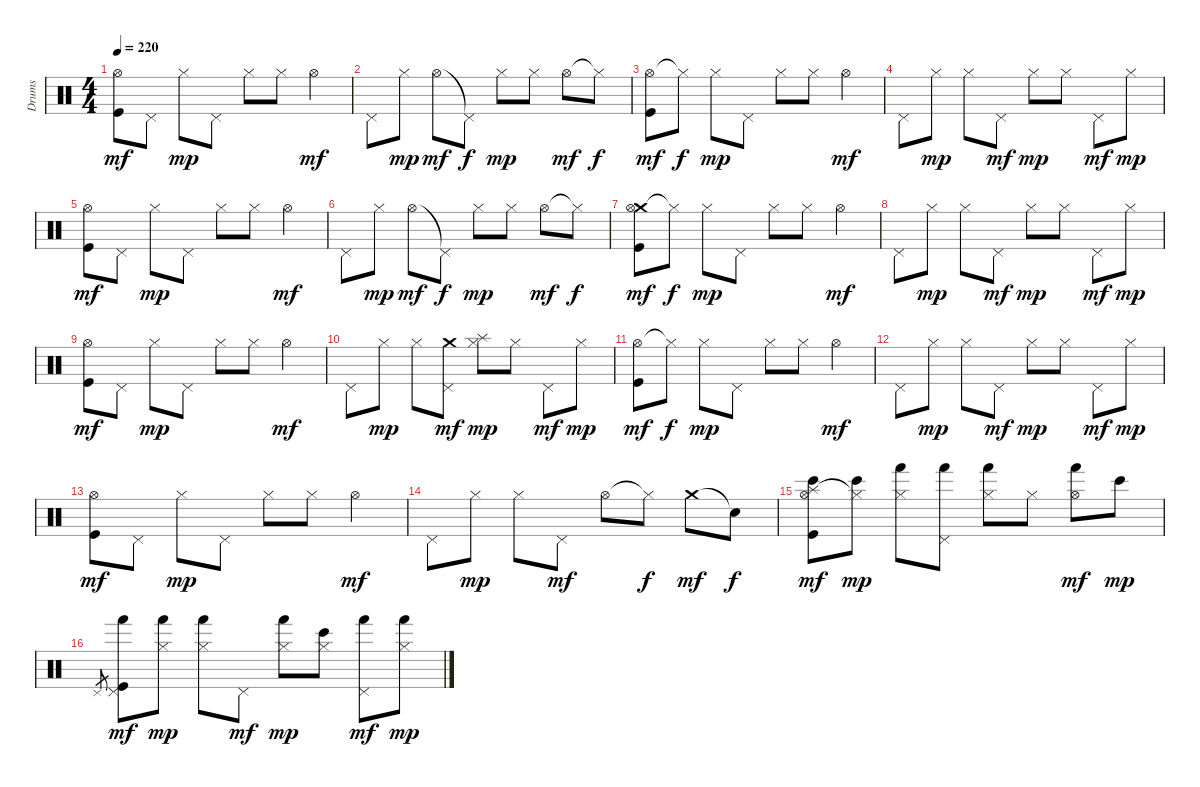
\track ("Drums" "Drums") {instrument percussion}
\staff {score}
\articulation defaults
\ts (4 4)
\tempo 220
\clef neutral
\ks c
("Hi-Hat (open)" "Kick (hit)").8{dy mf} "Pedal Hi-Hat (hit)".8 "Hi-Hat (closed)".8{dy mp} "Pedal Hi-Hat (hit)".8 "Hi-Hat (closed)".8 "Hi-Hat (closed)".8 "Hi-Hat (open)".4{dy mf} |
"Pedal Hi-Hat (hit)".8 "Hi-Hat (closed)".8{dy mp} "Hi-Hat (open)".8{dy mf} "Pedal Hi-Hat (hit)"{t}.8{dy f} "Hi-Hat (closed)".8{dy mp} "Hi-Hat (closed)".8 "Hi-Hat (open)".8{dy mf} "Hi-Hat (closed)"{t}.8{dy f} |
("Hi-Hat (open)" "Kick (hit)").8{dy mf} "Hi-Hat (closed)"{t}.8{dy f} "Hi-Hat (closed)".8{dy mp} "Pedal Hi-Hat (hit)".8 "Hi-Hat (closed)".8 "Hi-Hat (closed)".8 "Hi-Hat (open)".4{dy mf} |
"Pedal Hi-Hat (hit)".8 "Hi-Hat (closed)".8{dy mp} "Hi-Hat (closed)".8 "Pedal Hi-Hat (hit)".8{dy mf} "Hi-Hat (closed)".8{dy mp} "Hi-Hat (closed)".8 "Pedal Hi-Hat (hit)".8{dy mf} "Hi-Hat (closed)".8{dy mp} |
("Hi-Hat (open)" "Kick (hit)").8{dy mf} "Pedal Hi-Hat (hit)".8 "Hi-Hat (closed)".8{dy mp} "Pedal Hi-Hat (hit)".8 "Hi-Hat (closed)".8 "Hi-Hat (closed)".8 "Hi-Hat (open)".4{dy mf} |
"Pedal Hi-Hat (hit)".8 "Hi-Hat (closed)".8{dy mp} "Hi-Hat (open)".8{dy mf} "Pedal Hi-Hat (hit)"{t}.8{dy f} "Hi-Hat (closed)".8{dy mp} "Hi-Hat (closed)".8 "Hi-Hat (open)".8{dy mf} "Hi-Hat (closed)"{t}.8{dy f} |
("Crash medium (hit)" "Hi-Hat (open)" "Kick (hit)").8{dy mf} "Hi-Hat (closed)"{t}.8{dy f} "Hi-Hat (closed)".8{dy mp} "Pedal Hi-Hat (hit)".8 "Hi-Hat (closed)".8 "Hi-Hat (closed)".8 "Hi-Hat (open)".4{dy mf} |
"Pedal Hi-Hat (hit)".8 "Hi-Hat (closed)".8{dy mp} "Hi-Hat (closed)".8 "Pedal Hi-Hat (hit)".8{dy mf} "Hi-Hat (closed)".8{dy mp} "Hi-Hat (closed)".8 "Pedal Hi-Hat (hit)".8{dy mf} "Hi-Hat (closed)".8{dy mp} |
("Hi-Hat (open)" "Kick (hit)").8{dy mf} "Pedal Hi-Hat (hit)".8 "Hi-Hat (closed)".8{dy mp} "Pedal Hi-Hat (hit)".8 "Hi-Hat (closed)".8 "Hi-Hat (closed)".8 "Hi-Hat (open)".4{dy mf} |
"Pedal Hi-Hat (hit)".8 "Hi-Hat (closed)".8{dy mp} "Hi-Hat (closed)".8 ("Crash medium (hit)" "Pedal Hi-Hat (hit)").8{dy mf} ("Splash (hit)" "Hi-Hat (closed)").8{dy mp} "Hi-Hat (closed)".8 "Pedal Hi-Hat (hit)".8{dy mf} "Hi-Hat (closed)".8{dy mp} |
("Hi-Hat (open)" "Kick (hit)").8{dy mf} "Hi-Hat (closed)"{t}.8{dy f} "Hi-Hat (closed)".8{dy mp} "Pedal Hi-Hat (hit)".8 "Hi-Hat (closed)".8 "Hi-Hat (closed)".8 "Hi-Hat (open)".4{dy mf} |
"Pedal Hi-Hat (hit)".8 "Hi-Hat (closed)".8{dy mp} "Hi-Hat (closed)".8 "Pedal Hi-Hat (hit)".8{dy mf} "Hi-Hat (closed)".8{dy mp} "Hi-Hat (closed)".8 "Pedal Hi-Hat (hit)".8{dy mf} "Hi-Hat (closed)".8{dy mp} |
("Hi-Hat (open)" "Kick (hit)").8{dy mf} "Pedal Hi-Hat (hit)".8 "Hi-Hat (closed)".8{dy mp} "Pedal Hi-Hat (hit)".8 "Hi-Hat (closed)".8 "Hi-Hat (closed)".8 "Hi-Hat (open)".4{dy mf} |
"Pedal Hi-Hat (hit)".8 "Hi-Hat (closed)".8{dy mp} "Hi-Hat (closed)".8 "Pedal Hi-Hat (hit)".8{dy mf} "Hi-Hat (open)".8 "Hi-Hat (closed)"{t}.8{dy f} "Crash medium (hit)".8{dy mf} "Snare (hit)"{t}.8{dy f} |
("Bongo High (hit)" "Splash (hit)" "Hi-Hat (open)" "Kick (hit)").8{dy mf} ("Bongo High (hit)" "Hi-Hat (closed)"{t}).8{dy mp} ("Hand (hit)" "Hi-Hat (closed)").8 ("Hand (hit)" "Pedal Hi-Hat (hit)").8 ("Hand (hit)" "Hi-Hat (closed)").8 "Hi-Hat (closed)".8 ("Hand (hit)" "Hi-Hat (open)").8{dy mf} "Bongo High (hit)".8{dy mp} |
"Pedal Hi-Hat (hit)".8{gr} ("Hand (hit)" "Pedal Hi-Hat (hit)" "Kick (hit)").8{dy mf} ("Hand (hit)" "Hi-Hat (closed)").8{dy mp} ("Hand (hit)" "Hi-Hat (closed)").8 "Pedal Hi-Hat (hit)".8{dy mf} ("Hand (hit)" "Hi-Hat (closed)").8{dy mp} ("Bongo High (hit)" "Hi-Hat (closed)").8 ("Hand (hit)" "Pedal Hi-Hat (hit)").8{dy mf} ("Hand (hit)" "Hi-Hat (closed)").8{dy mp}
